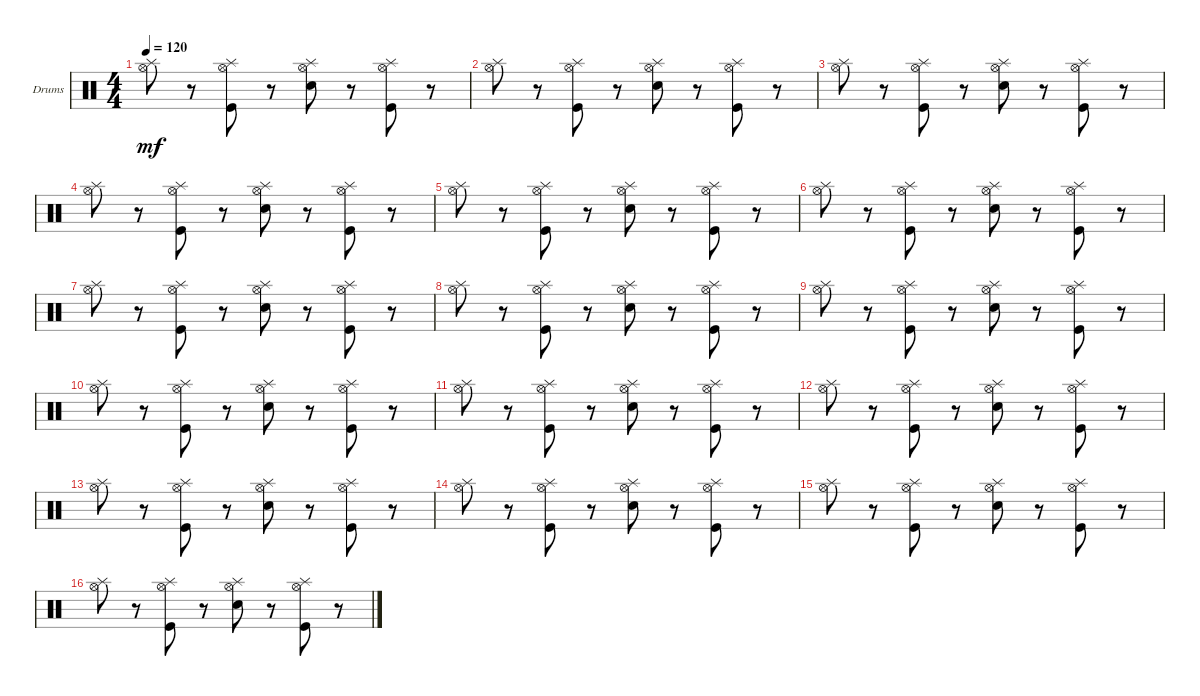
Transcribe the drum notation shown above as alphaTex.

\defaultSystemsLayout 4
\bracketExtendMode groupsimilarinstruments
\firstSystemTrackNameOrientation horizontal
\otherSystemsTrackNameOrientation horizontal
\track ("Drumkit" "Drums") {instrument percussion}
\staff {score}
\articulation defaults
\ts (4 4)
\tempo 120
\clef neutral
\ks c
("Splash (hit)" "Hi-Hat (open)").8{dy mf} r.8 ("Splash (hit)" "Hi-Hat (open)" "Kick (hit)").8 r.8 ("Snare (hit) 2" "Splash (hit)" "Hi-Hat (open)").8 r.8 ("Splash (hit)" "Hi-Hat (open)" "Kick (hit)").8 r.8 |
("Splash (hit)" "Hi-Hat (open)").8 r.8 ("Splash (hit)" "Hi-Hat (open)" "Kick (hit)").8 r.8 ("Snare (hit) 2" "Splash (hit)" "Hi-Hat (open)").8 r.8 ("Splash (hit)" "Hi-Hat (open)" "Kick (hit)").8 r.8 |
("Splash (hit)" "Hi-Hat (open)").8 r.8 ("Splash (hit)" "Hi-Hat (open)" "Kick (hit)").8 r.8 ("Snare (hit) 2" "Splash (hit)" "Hi-Hat (open)").8 r.8 ("Splash (hit)" "Hi-Hat (open)" "Kick (hit)").8 r.8 |
("Splash (hit)" "Hi-Hat (open)").8 r.8 ("Splash (hit)" "Hi-Hat (open)" "Kick (hit)").8 r.8 ("Snare (hit) 2" "Splash (hit)" "Hi-Hat (open)").8 r.8 ("Splash (hit)" "Hi-Hat (open)" "Kick (hit)").8 r.8 |
("Splash (hit)" "Hi-Hat (open)").8 r.8 ("Splash (hit)" "Hi-Hat (open)" "Kick (hit)").8 r.8 ("Snare (hit) 2" "Splash (hit)" "Hi-Hat (open)").8 r.8 ("Splash (hit)" "Hi-Hat (open)" "Kick (hit)").8 r.8 |
("Splash (hit)" "Hi-Hat (open)").8 r.8 ("Splash (hit)" "Hi-Hat (open)" "Kick (hit)").8 r.8 ("Snare (hit) 2" "Splash (hit)" "Hi-Hat (open)").8 r.8 ("Splash (hit)" "Hi-Hat (open)" "Kick (hit)").8 r.8 |
("Splash (hit)" "Hi-Hat (open)").8 r.8 ("Splash (hit)" "Hi-Hat (open)" "Kick (hit)").8 r.8 ("Snare (hit) 2" "Splash (hit)" "Hi-Hat (open)").8 r.8 ("Splash (hit)" "Hi-Hat (open)" "Kick (hit)").8 r.8 |
("Splash (hit)" "Hi-Hat (open)").8 r.8 ("Splash (hit)" "Hi-Hat (open)" "Kick (hit)").8 r.8 ("Snare (hit) 2" "Splash (hit)" "Hi-Hat (open)").8 r.8 ("Splash (hit)" "Hi-Hat (open)" "Kick (hit)").8 r.8 |
("Splash (hit)" "Hi-Hat (open)").8 r.8 ("Splash (hit)" "Hi-Hat (open)" "Kick (hit)").8 r.8 ("Snare (hit) 2" "Splash (hit)" "Hi-Hat (open)").8 r.8 ("Splash (hit)" "Hi-Hat (open)" "Kick (hit)").8 r.8 |
("Splash (hit)" "Hi-Hat (open)").8 r.8 ("Splash (hit)" "Hi-Hat (open)" "Kick (hit)").8 r.8 ("Snare (hit) 2" "Splash (hit)" "Hi-Hat (open)").8 r.8 ("Splash (hit)" "Hi-Hat (open)" "Kick (hit)").8 r.8 |
("Splash (hit)" "Hi-Hat (open)").8 r.8 ("Splash (hit)" "Hi-Hat (open)" "Kick (hit)").8 r.8 ("Snare (hit) 2" "Splash (hit)" "Hi-Hat (open)").8 r.8 ("Splash (hit)" "Hi-Hat (open)" "Kick (hit)").8 r.8 |
\scale
0.274876 ("Splash (hit)" "Hi-Hat (open)").8 r.8 ("Splash (hit)" "Hi-Hat (open)" "Kick (hit)").8 r.8 ("Snare (hit) 2" "Splash (hit)" "Hi-Hat (open)").8 r.8 ("Splash (hit)" "Hi-Hat (open)" "Kick (hit)").8 r.8 |
\scale
0.236318 ("Splash (hit)" "Hi-Hat (open)").8 r.8 ("Splash (hit)" "Hi-Hat (open)" "Kick (hit)").8 r.8 ("Snare (hit) 2" "Splash (hit)" "Hi-Hat (open)").8 r.8 ("Splash (hit)" "Hi-Hat (open)" "Kick (hit)").8 r.8 |
\scale
0.236318 ("Splash (hit)" "Hi-Hat (open)").8 r.8 ("Splash (hit)" "Hi-Hat (open)" "Kick (hit)").8 r.8 ("Snare (hit) 2" "Splash (hit)" "Hi-Hat (open)").8 r.8 ("Splash (hit)" "Hi-Hat (open)" "Kick (hit)").8 r.8 |
\scale
0.252488 ("Splash (hit)" "Hi-Hat (open)").8 r.8 ("Splash (hit)" "Hi-Hat (open)" "Kick (hit)").8 r.8 ("Snare (hit) 2" "Splash (hit)" "Hi-Hat (open)").8 r.8 ("Splash (hit)" "Hi-Hat (open)" "Kick (hit)").8 r.8 |
("Splash (hit)" "Hi-Hat (open)").8 r.8 ("Splash (hit)" "Hi-Hat (open)" "Kick (hit)").8 r.8 ("Snare (hit) 2" "Splash (hit)" "Hi-Hat (open)").8 r.8 ("Splash (hit)" "Hi-Hat (open)" "Kick (hit)").8 r.8
